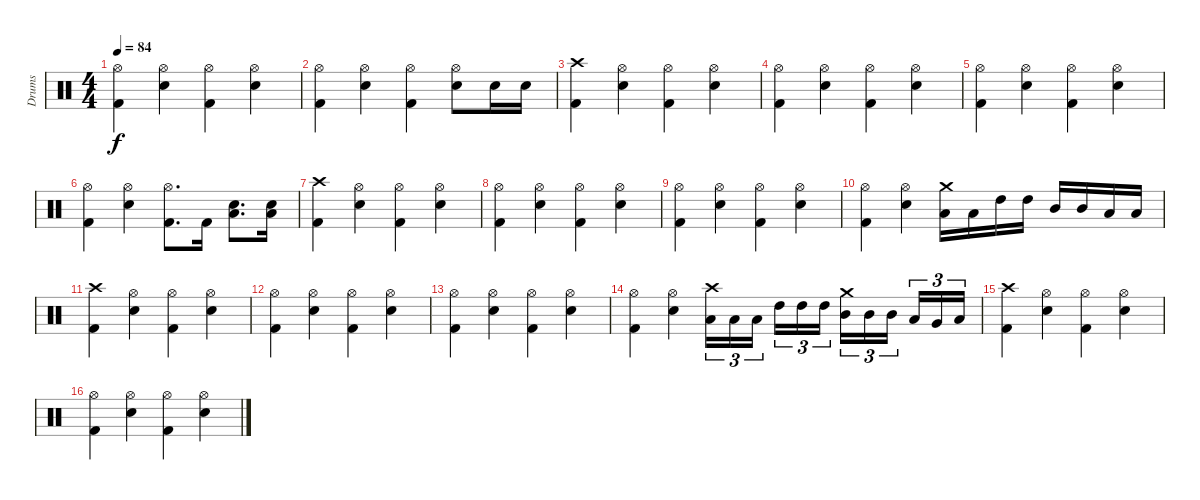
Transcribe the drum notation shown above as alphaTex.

\track ("Drums" "Drums") {instrument percussion}
\staff {score}
\articulation defaults
\ts (4 4)
\tempo 84
\clef neutral
\ks c
("Hi-Hat (open)" "Kick (hit) 2").4{dy f} ("Hi-Hat (open)" "Snare (hit) 2").4 ("Hi-Hat (open)" "Kick (hit) 2").4 ("Hi-Hat (open)" "Snare (hit) 2").4 |
("Hi-Hat (open)" "Kick (hit) 2").4 ("Hi-Hat (open)" "Snare (hit) 2").4 ("Hi-Hat (open)" "Kick (hit) 2").4 ("Hi-Hat (open)" "Snare (hit) 2").8 "Snare (hit) 2".16 "Snare (hit) 2".16 |
("Crash high (hit)" "Kick (hit) 2").4 ("Hi-Hat (open)" "Snare (hit) 2").4 ("Hi-Hat (open)" "Kick (hit) 2").4 ("Hi-Hat (open)" "Snare (hit) 2").4 |
("Hi-Hat (open)" "Kick (hit) 2").4 ("Hi-Hat (open)" "Snare (hit) 2").4 ("Hi-Hat (open)" "Kick (hit) 2").4 ("Hi-Hat (open)" "Snare (hit) 2").4 |
("Hi-Hat (open)" "Kick (hit) 2").4 ("Hi-Hat (open)" "Snare (hit) 2").4 ("Hi-Hat (open)" "Kick (hit) 2").4 ("Hi-Hat (open)" "Snare (hit) 2").4 |
("Hi-Hat (open)" "Kick (hit) 2").4 ("Hi-Hat (open)" "Snare (hit) 2").4 ("Hi-Hat (open)" "Kick (hit) 2").8{d} "Kick (hit) 2".16 ("Snare (hit) 2" "Low Tom (hit)").8{d} ("Snare (hit) 2" "Low Tom (hit)").16 |
("Crash high (hit)" "Kick (hit) 2").4 ("Hi-Hat (open)" "Snare (hit) 2").4 ("Hi-Hat (open)" "Kick (hit) 2").4 ("Hi-Hat (open)" "Snare (hit) 2").4 |
("Hi-Hat (open)" "Kick (hit) 2").4 ("Hi-Hat (open)" "Snare (hit) 2").4 ("Hi-Hat (open)" "Kick (hit) 2").4 ("Hi-Hat (open)" "Snare (hit) 2").4 |
("Hi-Hat (open)" "Kick (hit) 2").4 ("Hi-Hat (open)" "Snare (hit) 2").4 ("Hi-Hat (open)" "Kick (hit) 2").4 ("Hi-Hat (open)" "Snare (hit) 2").4 |
("Hi-Hat (open)" "Kick (hit) 2").4 ("Hi-Hat (open)" "Snare (hit) 2").4 ("Crash medium (hit)" "Low Floor Tom (hit)").16 "Low Floor Tom (hit)".16 "High Tom (hit)".16 "High Tom (hit)".16 "Mid Tom (hit)".16 "Mid Tom (hit)".16 "Low Tom (hit)".16 "Low Tom (hit)".16 |
("Crash high (hit)" "Kick (hit) 2").4 ("Hi-Hat (open)" "Snare (hit) 2").4 ("Hi-Hat (open)" "Kick (hit) 2").4 ("Hi-Hat (open)" "Snare (hit) 2").4 |
("Hi-Hat (open)" "Kick (hit) 2").4 ("Hi-Hat (open)" "Snare (hit) 2").4 ("Hi-Hat (open)" "Kick (hit) 2").4 ("Hi-Hat (open)" "Snare (hit) 2").4 |
("Hi-Hat (open)" "Kick (hit) 2").4 ("Hi-Hat (open)" "Snare (hit) 2").4 ("Hi-Hat (open)" "Kick (hit) 2").4 ("Hi-Hat (open)" "Snare (hit) 2").4 |
("Hi-Hat (open)" "Kick (hit) 2").4 ("Hi-Hat (open)" "Snare (hit) 2").4 ("Crash high (hit)" "Low Tom (hit)").16{tu (3 2)} "Low Tom (hit)".16{tu (3 2)} "Low Tom (hit)".16{tu (3 2) beam splitsecondary} "High Tom (hit)".16{tu (3 2)} "High Tom (hit)".16{tu (3 2)} "High Tom (hit)".16{tu (3 2)} ("Crash medium (hit)" "Mid Tom (hit)").16{tu (3 2)} "Mid Tom (hit)".16{tu (3 2)} "Mid Tom (hit)".16{tu (3 2) beam splitsecondary} "Low Tom (hit)".16{tu (3 2)} "Very Low Tom (hit)".16{tu (3 2)} "Low Floor Tom (hit)".16{tu (3 2)} |
("Crash high (hit)" "Kick (hit) 2").4 ("Hi-Hat (open)" "Snare (hit) 2").4 ("Hi-Hat (open)" "Kick (hit) 2").4 ("Hi-Hat (open)" "Snare (hit) 2").4 |
("Hi-Hat (open)" "Kick (hit) 2").4 ("Hi-Hat (open)" "Snare (hit) 2").4 ("Hi-Hat (open)" "Kick (hit) 2").4 ("Hi-Hat (open)" "Snare (hit) 2").4
